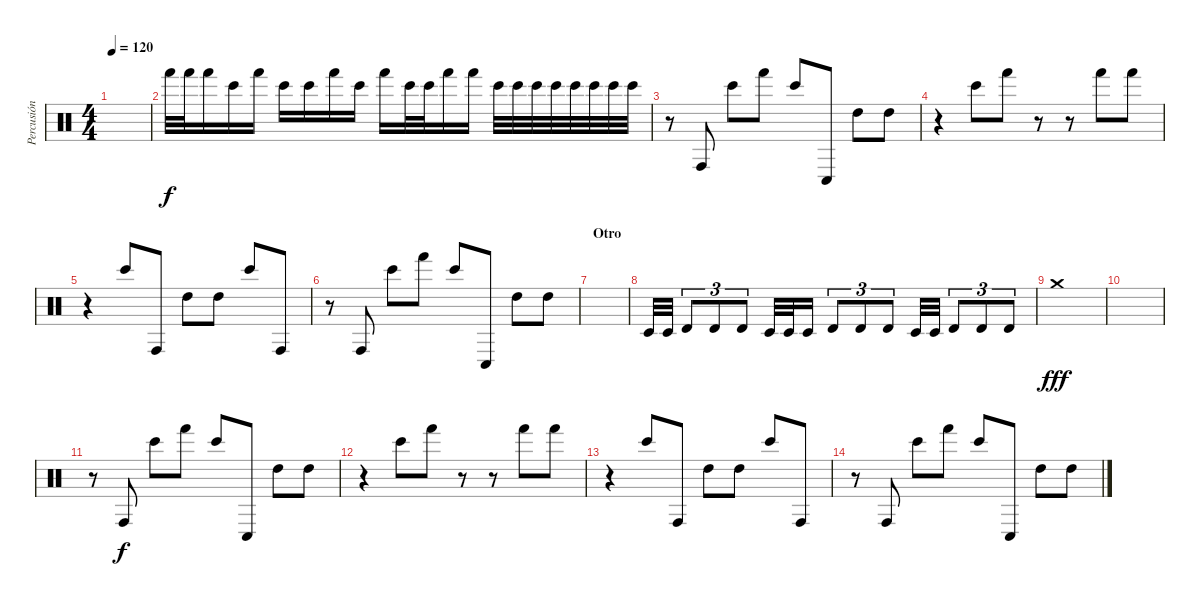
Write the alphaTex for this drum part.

\track ("Percusión" "Percusión") {instrument percussion}
\staff {score}
\articulation defaults
\ts (4 4)
\tempo 120
\clef neutral
\ks c
|
"Hand (hit)".32 "Hand (hit)".32 "Hand (hit)".16 "Bongo High (hit)".16 "Hand (hit)".16 "Bongo High (hit)".16 "Bongo High (hit)".16 "Hand (hit)".16 "Bongo High (hit)".16 "Hand (hit)".16 "Bongo High (hit)".32 "Bongo High (hit)".32 "Hand (hit)".16 "Hand (hit)".16 "Bongo High (hit)".32 "Bongo High (hit)".32 "Bongo High (hit)".32 "Bongo High (hit)".32 "Bongo High (hit)".32 "Bongo High (hit)".32 "Bongo High (hit)".32 "Bongo High (hit)".32 |
r.8 "Conga high (hit)".8 "Bongo High (hit)".8 "Hand (hit)".8 "Bongo High (hit)".8 "Conga low (hit)".8 "High Tom (hit)".8 "High Tom (hit)".8 |
r.4 "Bongo High (hit)".8 "Hand (hit)".8 r.8 r.8 "Hand (hit)".8 "Hand (hit)".8 |
r.4 "Bongo High (hit)".8 "Conga high (hit)".8 "High Tom (hit)".8 "High Tom (hit)".8 "Bongo High (hit)".8 "Conga high (hit)".8 |
r.8 "Conga high (hit)".8 "Bongo High (hit)".8 "Hand (hit)".8 "Bongo High (hit)".8 "Conga low (hit)".8 "High Tom (hit)".8 "High Tom (hit)".8 |
\section ("" "Otro")
|
"Timbale low (hit)".32 "Timbale low (hit)".32 "Timbale high (hit)".8{tu (3 2)} "Timbale high (hit)".8{tu (3 2)} "Timbale high (hit)".8{tu (3 2)} "Timbale low (hit)".32 "Timbale low (hit)".32 "Timbale low (hit)".16 "Timbale high (hit)".8{tu (3 2)} "Timbale high (hit)".8{tu (3 2)} "Timbale high (hit)".8{tu (3 2)} "Timbale low (hit)".32 "Timbale low (hit)".32 "Timbale high (hit)".8{tu (3 2)} "Timbale high (hit)".8{tu (3 2)} "Timbale high (hit)".8{tu (3 2)} |
"Crash medium (hit)".1{dy fff} |
|
r.8 "Conga high (hit)".8{dy f} "Bongo High (hit)".8 "Hand (hit)".8 "Bongo High (hit)".8 "Conga low (hit)".8 "High Tom (hit)".8 "High Tom (hit)".8 |
r.4 "Bongo High (hit)".8 "Hand (hit)".8 r.8 r.8 "Hand (hit)".8 "Hand (hit)".8 |
r.4 "Bongo High (hit)".8 "Conga high (hit)".8 "High Tom (hit)".8 "High Tom (hit)".8 "Bongo High (hit)".8 "Conga high (hit)".8 |
r.8 "Conga high (hit)".8 "Bongo High (hit)".8 "Hand (hit)".8 "Bongo High (hit)".8 "Conga low (hit)".8 "High Tom (hit)".8 "High Tom (hit)".8
